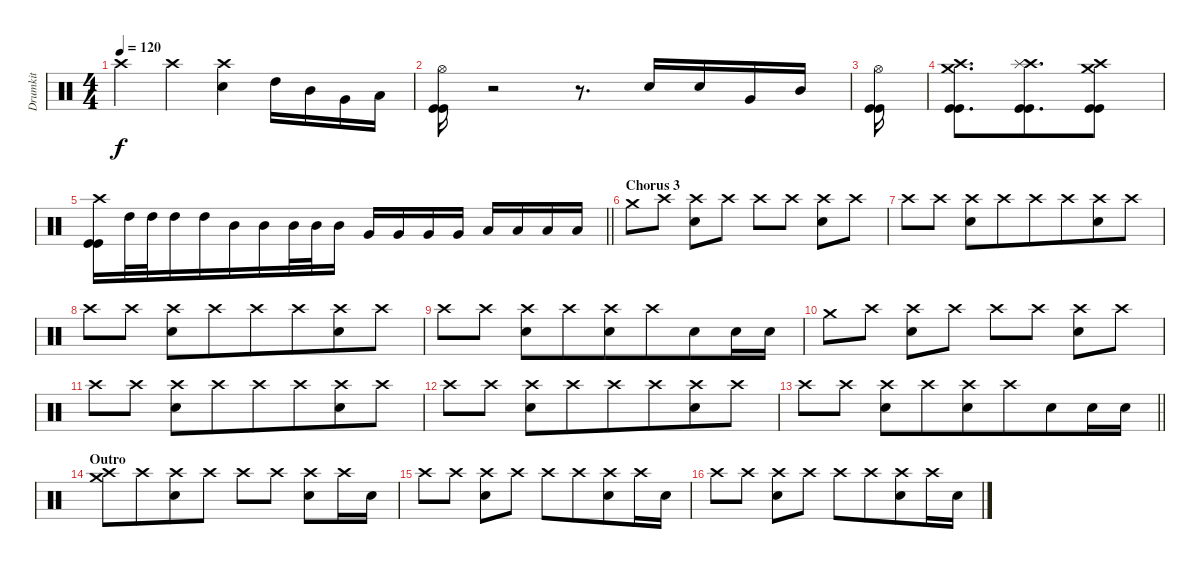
\track ("Drumkit" "Drumkit") {instrument percussion}
\staff {score}
\articulation defaults
\ts (4 4)
\tempo 120
\clef neutral
\ks c "Crash high (hit)".4{dy f beam merge} "Crash high (hit)".4{beam merge}
("Crash high (hit)" "Electric Snare (hit)").4 "High Tom (hit)".16 "Mid Tom (hit)".16{beam merge} "Very Low Tom (hit)".16 "Low Floor Tom (hit)".16 |
("Hi-Hat (open)" "Kick (hit)" "Kick (hit)").16 r.2 r.8{d beam merge} "Electric Snare (hit)".16 "Electric Snare (hit)".16 "Very Low Tom (hit)".16 "Mid Tom (hit)".16 |
("Hi-Hat (open)" "Kick (hit)" "Kick (hit)").16 |
("Crash medium (hit)" "Crash high (hit)" "Kick (hit)" "Kick (hit)").8{d} ("Crash high (hit)" "Splash (hit)" "Kick (hit)" "Kick (hit)").8{d beam merge} ("Crash medium (hit)" "Crash high (hit)" "Kick (hit)" "Kick (hit)").8 |
\barLineRight lightlight
("Crash high (hit)" "Kick (hit)" "Kick (hit)").16 "High Tom (hit)".32{beam merge} "High Tom (hit)".32 "High Tom (hit)".16 "High Tom (hit)".16{beam merge} "Mid Tom (hit)".16{beam merge} "Mid Tom (hit)".16 "Mid Tom (hit)".32 "Mid Tom (hit)".32 "Mid Tom (hit)".16 "Very Low Tom (hit)".16{beam merge} "Very Low Tom (hit)".16 "Very Low Tom (hit)".16{beam merge} "Very Low Tom (hit)".16 "Low Floor Tom (hit)".16{beam merge} "Low Floor Tom (hit)".16{beam merge} "Low Floor Tom (hit)".16{beam merge} "Low Floor Tom (hit)".16 |
\section ("" "Chorus 3")
"Crash medium (hit)".8 "Crash high (hit)".8 ("Crash high (hit)" "Electric Snare (hit)").8{beam merge} "Crash high (hit)".8 "Crash high (hit)".8{beam merge} "Crash high (hit)".8 ("Crash high (hit)" "Electric Snare (hit)").8 "Crash high (hit)".8 |
"Crash high (hit)".8{beam merge} "Crash high (hit)".8 ("Crash high (hit)" "Electric Snare (hit)").8 "Crash high (hit)".8{beam merge} "Crash high (hit)".8 "Crash high (hit)".8{beam merge} ("Crash high (hit)" "Electric Snare (hit)").8 "Crash high (hit)".8 |
"Crash high (hit)".8{beam merge} "Crash high (hit)".8 ("Crash high (hit)" "Electric Snare (hit)").8 "Crash high (hit)".8{beam merge} "Crash high (hit)".8 "Crash high (hit)".8{beam merge} ("Crash high (hit)" "Electric Snare (hit)").8 "Crash high (hit)".8 |
"Crash high (hit)".8{beam merge} "Crash high (hit)".8 ("Crash high (hit)" "Electric Snare (hit)").8 "Crash high (hit)".8{beam merge} ("Crash high (hit)" "Electric Snare (hit)").8 "Crash high (hit)".8{beam merge} "Electric Snare (hit)".8 "Electric Snare (hit)".16 "Electric Snare (hit)".16 |
"Crash medium (hit)".8 "Crash high (hit)".8 ("Crash high (hit)" "Electric Snare (hit)").8{beam merge} "Crash high (hit)".8 "Crash high (hit)".8{beam merge} "Crash high (hit)".8 ("Crash high (hit)" "Electric Snare (hit)").8 "Crash high (hit)".8 |
"Crash high (hit)".8{beam merge} "Crash high (hit)".8 ("Crash high (hit)" "Electric Snare (hit)").8 "Crash high (hit)".8{beam merge} "Crash high (hit)".8 "Crash high (hit)".8{beam merge} ("Crash high (hit)" "Electric Snare (hit)").8 "Crash high (hit)".8 |
"Crash high (hit)".8{beam merge} "Crash high (hit)".8 ("Crash high (hit)" "Electric Snare (hit)").8 "Crash high (hit)".8{beam merge} "Crash high (hit)".8 "Crash high (hit)".8{beam merge} ("Crash high (hit)" "Electric Snare (hit)").8 "Crash high (hit)".8 |
\barLineRight lightlight "Crash high (hit)".8{beam merge} "Crash high (hit)".8
("Crash high (hit)" "Electric Snare (hit)").8 "Crash high (hit)".8{beam merge} ("Crash high (hit)" "Electric Snare (hit)").8 "Crash high (hit)".8{beam merge} "Electric Snare (hit)".8 "Electric Snare (hit)".16 "Electric Snare (hit)".16 |
\section ("" "Outro")
("Crash medium (hit)" "Crash high (hit)").8 "Crash high (hit)".8{beam merge} ("Crash high (hit)" "Electric Snare (hit)").8 "Crash high (hit)".8 "Crash high (hit)".8 "Crash high (hit)".8 ("Crash high (hit)" "Electric Snare (hit)").8{beam merge} "Crash high (hit)".16 "Electric Snare (hit)".16 |
"Crash high (hit)".8{beam merge} "Crash high (hit)".8 ("Crash high (hit)" "Electric Snare (hit)").8 "Crash high (hit)".8 "Crash high (hit)".8 "Crash high (hit)".8{beam merge} ("Crash high (hit)" "Electric Snare (hit)").8 "Crash high (hit)".16{beam merge} "Electric Snare (hit)".16 |
"Crash high (hit)".8{beam merge} "Crash high (hit)".8 ("Crash high (hit)" "Electric Snare (hit)").8 "Crash high (hit)".8 "Crash high (hit)".8 "Crash high (hit)".8{beam merge} ("Crash high (hit)" "Electric Snare (hit)").8 "Crash high (hit)".16{beam merge} "Electric Snare (hit)".16
